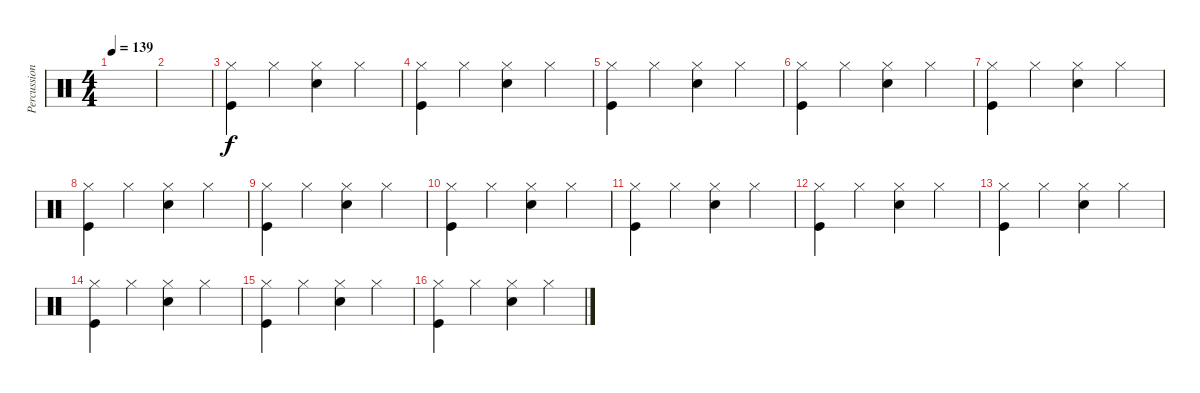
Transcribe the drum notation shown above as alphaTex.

\track ("Percussions" "Percussion") {instrument percussion}
\staff {score}
\articulation defaults
\ts (4 4)
\tempo 139
\clef neutral
\ks c
|
|
("Hi-Hat (closed)" "Kick (hit)").4 "Hi-Hat (closed)".4 ("Hi-Hat (closed)" "Snare (hit) 2").4 "Hi-Hat (closed)".4 |
("Hi-Hat (closed)" "Kick (hit)").4 "Hi-Hat (closed)".4 ("Hi-Hat (closed)" "Snare (hit) 2").4 "Hi-Hat (closed)".4 |
("Hi-Hat (closed)" "Kick (hit)").4 "Hi-Hat (closed)".4 ("Hi-Hat (closed)" "Snare (hit) 2").4 "Hi-Hat (closed)".4 |
("Hi-Hat (closed)" "Kick (hit)").4 "Hi-Hat (closed)".4 ("Hi-Hat (closed)" "Snare (hit) 2").4 "Hi-Hat (closed)".4 |
("Hi-Hat (closed)" "Kick (hit)").4 "Hi-Hat (closed)".4 ("Hi-Hat (closed)" "Snare (hit) 2").4 "Hi-Hat (closed)".4 |
("Hi-Hat (closed)" "Kick (hit)").4 "Hi-Hat (closed)".4 ("Hi-Hat (closed)" "Snare (hit) 2").4 "Hi-Hat (closed)".4 |
("Hi-Hat (closed)" "Kick (hit)").4 "Hi-Hat (closed)".4 ("Hi-Hat (closed)" "Snare (hit) 2").4 "Hi-Hat (closed)".4 |
("Hi-Hat (closed)" "Kick (hit)").4 "Hi-Hat (closed)".4 ("Hi-Hat (closed)" "Snare (hit) 2").4 "Hi-Hat (closed)".4 |
("Hi-Hat (closed)" "Kick (hit)").4 "Hi-Hat (closed)".4 ("Hi-Hat (closed)" "Snare (hit) 2").4 "Hi-Hat (closed)".4 |
("Hi-Hat (closed)" "Kick (hit)").4 "Hi-Hat (closed)".4 ("Hi-Hat (closed)" "Snare (hit) 2").4 "Hi-Hat (closed)".4 |
("Hi-Hat (closed)" "Kick (hit)").4 "Hi-Hat (closed)".4 ("Hi-Hat (closed)" "Snare (hit) 2").4 "Hi-Hat (closed)".4 |
("Hi-Hat (closed)" "Kick (hit)").4 "Hi-Hat (closed)".4 ("Hi-Hat (closed)" "Snare (hit) 2").4 "Hi-Hat (closed)".4 |
("Hi-Hat (closed)" "Kick (hit)").4 "Hi-Hat (closed)".4 ("Hi-Hat (closed)" "Snare (hit) 2").4 "Hi-Hat (closed)".4 |
("Hi-Hat (closed)" "Kick (hit)").4 "Hi-Hat (closed)".4 ("Hi-Hat (closed)" "Snare (hit) 2").4 "Hi-Hat (closed)".4
